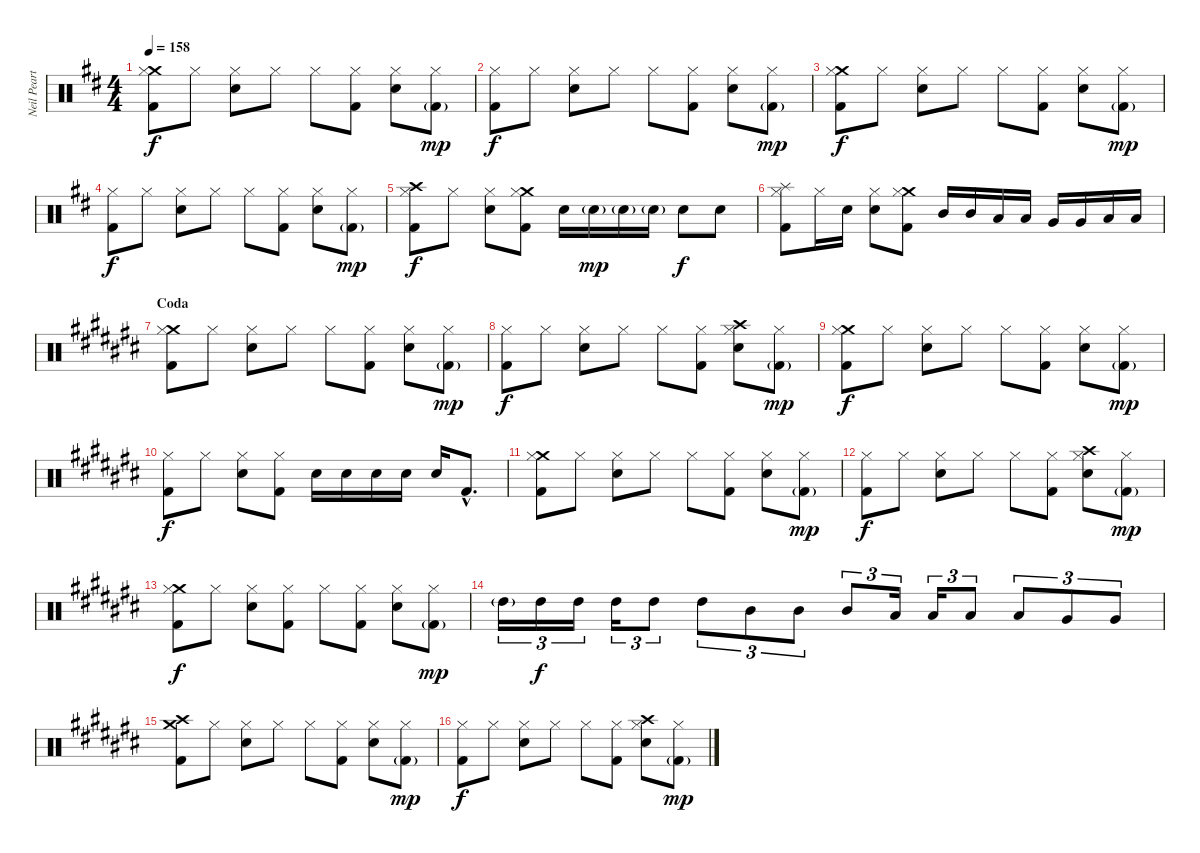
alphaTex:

\track ("Neil Peart (drums)" "Neil Peart") {instrument percussion}
\staff {score}
\articulation defaults
\ts (4 4)
\tempo 158
\clef neutral
\ks bminor
("Crash medium (hit)" "Hi-Hat (closed)" "Kick (hit) 2").8{dy f} "Hi-Hat (closed)".8 ("Hi-Hat (closed)" "Electric Snare (hit)").8 "Hi-Hat (closed)".8 "Hi-Hat (closed)".8 ("Hi-Hat (closed)" "Kick (hit) 2").8 ("Hi-Hat (closed)" "Electric Snare (hit)").8 ("Hi-Hat (closed)" "Kick (hit) 2"{g}).8{dy mp} |
("Hi-Hat (closed)" "Kick (hit) 2").8{dy f} "Hi-Hat (closed)".8 ("Hi-Hat (closed)" "Electric Snare (hit)").8 "Hi-Hat (closed)".8 "Hi-Hat (closed)".8 ("Hi-Hat (closed)" "Kick (hit) 2").8 ("Hi-Hat (closed)" "Electric Snare (hit)").8 ("Hi-Hat (closed)" "Kick (hit) 2"{g}).8{dy mp} |
("Crash medium (hit)" "Hi-Hat (closed)" "Kick (hit) 2").8{dy f} "Hi-Hat (closed)".8 ("Hi-Hat (closed)" "Electric Snare (hit)").8 "Hi-Hat (closed)".8 "Hi-Hat (closed)".8 ("Hi-Hat (closed)" "Kick (hit) 2").8 ("Hi-Hat (closed)" "Electric Snare (hit)").8 ("Hi-Hat (closed)" "Kick (hit) 2"{g}).8{dy mp} |
("Hi-Hat (closed)" "Kick (hit) 2").8{dy f} "Hi-Hat (closed)".8 ("Hi-Hat (closed)" "Electric Snare (hit)").8 "Hi-Hat (closed)".8 "Hi-Hat (closed)".8 ("Hi-Hat (closed)" "Kick (hit) 2").8 ("Hi-Hat (closed)" "Electric Snare (hit)").8 ("Hi-Hat (closed)" "Kick (hit) 2"{g}).8{dy mp} |
("Crash high (hit)" "Hi-Hat (closed)" "Kick (hit) 2").8{dy f} "Hi-Hat (closed)".8 ("Hi-Hat (closed)" "Electric Snare (hit)").8 ("Crash medium (hit)" "Hi-Hat (closed)" "Kick (hit) 2").8 "Electric Snare (hit)".16 "Electric Snare (hit)"{g}.16{dy mp} "Electric Snare (hit)"{g}.16 "Electric Snare (hit)"{g}.16 "Electric Snare (hit)".8{dy f} "Electric Snare (hit)".8 |
("Splash (hit)" "Hi-Hat (closed)" "Kick (hit) 2").8 "Hi-Hat (closed)".16 "Electric Snare (hit)".16 ("Hi-Hat (closed)" "Electric Snare (hit)").8 ("Crash medium (hit)" "Hi-Hat (closed)" "Kick (hit) 2").8 "Mid Tom (hit)".16 "Mid Tom (hit)".16 "Low Tom (hit)".16 "Low Tom (hit)".16 "Very Low Tom (hit)".16 "Very Low Tom (hit)".16 "Low Floor Tom (hit)".16 "Low Floor Tom (hit)".16 |
\section ("" "Coda")
\ks c#
("Crash medium (hit)" "Hi-Hat (closed)" "Kick (hit) 2").8 "Hi-Hat (closed)".8 ("Hi-Hat (closed)" "Electric Snare (hit)").8 "Hi-Hat (closed)".8 "Hi-Hat (closed)".8 ("Hi-Hat (closed)" "Kick (hit) 2").8 ("Hi-Hat (closed)" "Electric Snare (hit)").8 ("Hi-Hat (closed)" "Kick (hit) 2"{g}).8{dy mp} |
("Hi-Hat (closed)" "Kick (hit) 2").8{dy f} "Hi-Hat (closed)".8 ("Hi-Hat (closed)" "Electric Snare (hit)").8 "Hi-Hat (closed)".8 "Hi-Hat (closed)".8 ("Hi-Hat (closed)" "Kick (hit) 2").8 ("Crash high (hit)" "Hi-Hat (closed)" "Electric Snare (hit)").8 ("Hi-Hat (closed)" "Kick (hit) 2"{g}).8{dy mp} |
("Crash medium (hit)" "Hi-Hat (closed)" "Kick (hit) 2").8{dy f} "Hi-Hat (closed)".8 ("Hi-Hat (closed)" "Electric Snare (hit)").8 "Hi-Hat (closed)".8 "Hi-Hat (closed)".8 ("Hi-Hat (closed)" "Kick (hit) 2").8 ("Hi-Hat (closed)" "Electric Snare (hit)").8 ("Hi-Hat (closed)" "Kick (hit) 2"{g}).8{dy mp} |
("Hi-Hat (closed)" "Kick (hit) 2").8{dy f} "Hi-Hat (closed)".8 ("Hi-Hat (closed)" "Electric Snare (hit)").8 ("Hi-Hat (closed)" "Kick (hit) 2").8 "Electric Snare (hit)".16 "Electric Snare (hit)".16 "Electric Snare (hit)".16 "Electric Snare (hit)".16 "Electric Snare (hit)".16 "Kick (hit) 2"{hac}.8{d} |
("Crash medium (hit)" "Hi-Hat (closed)" "Kick (hit) 2").8 "Hi-Hat (closed)".8 ("Hi-Hat (closed)" "Electric Snare (hit)").8 "Hi-Hat (closed)".8 "Hi-Hat (closed)".8 ("Hi-Hat (closed)" "Kick (hit) 2").8 ("Hi-Hat (closed)" "Electric Snare (hit)").8 ("Hi-Hat (closed)" "Kick (hit) 2"{g}).8{dy mp} |
("Hi-Hat (closed)" "Kick (hit) 2").8{dy f} "Hi-Hat (closed)".8 ("Hi-Hat (closed)" "Electric Snare (hit)").8 "Hi-Hat (closed)".8 "Hi-Hat (closed)".8 ("Hi-Hat (closed)" "Kick (hit) 2").8 ("Crash high (hit)" "Hi-Hat (closed)" "Electric Snare (hit)").8 ("Hi-Hat (closed)" "Kick (hit) 2"{g}).8{dy mp} |
("Crash medium (hit)" "Hi-Hat (closed)" "Kick (hit) 2").8{dy f} "Hi-Hat (closed)".8 ("Hi-Hat (closed)" "Electric Snare (hit)").8 ("Hi-Hat (closed)" "Kick (hit) 2").8 "Hi-Hat (closed)".8 ("Hi-Hat (closed)" "Kick (hit) 2").8 ("Hi-Hat (closed)" "Electric Snare (hit)").8 ("Hi-Hat (closed)" "Kick (hit) 2"{g}).8{dy mp} |
"High Tom (hit)"{g}.16{tu (3 2)} "High Tom (hit)".16{tu (3 2) dy f} "High Tom (hit)".16{tu (3 2)} "High Tom (hit)".16{tu (3 2)} "High Tom (hit)".8{tu (3 2)} "High Tom (hit)".8{tu (3 2)} "Mid Tom (hit)".8{tu (3 2)} "Mid Tom (hit)".8{tu (3 2)} "Mid Tom (hit)".8{tu (3 2)} "Low Tom (hit)".16{tu (3 2)} "Low Tom (hit)".16{tu (3 2)} "Low Tom (hit)".8{tu (3 2)} "Low Tom (hit)".8{tu (3 2)} "Very Low Tom (hit)".8{tu (3 2)} "Very Low Tom (hit)".8{tu (3 2)} |
("Crash medium (hit)" "Crash high (hit)" "Kick (hit) 2").8 "Hi-Hat (closed)".8 ("Hi-Hat (closed)" "Electric Snare (hit)").8 "Hi-Hat (closed)".8 "Hi-Hat (closed)".8 ("Hi-Hat (closed)" "Kick (hit) 2").8 ("Hi-Hat (closed)" "Electric Snare (hit)").8 ("Hi-Hat (closed)" "Kick (hit) 2"{g}).8{dy mp} |
("Hi-Hat (closed)" "Kick (hit) 2").8{dy f} "Hi-Hat (closed)".8 ("Hi-Hat (closed)" "Electric Snare (hit)").8 "Hi-Hat (closed)".8 "Hi-Hat (closed)".8 ("Hi-Hat (closed)" "Kick (hit) 2").8 ("Crash high (hit)" "Hi-Hat (closed)" "Electric Snare (hit)").8 ("Hi-Hat (closed)" "Kick (hit) 2"{g}).8{dy mp}
